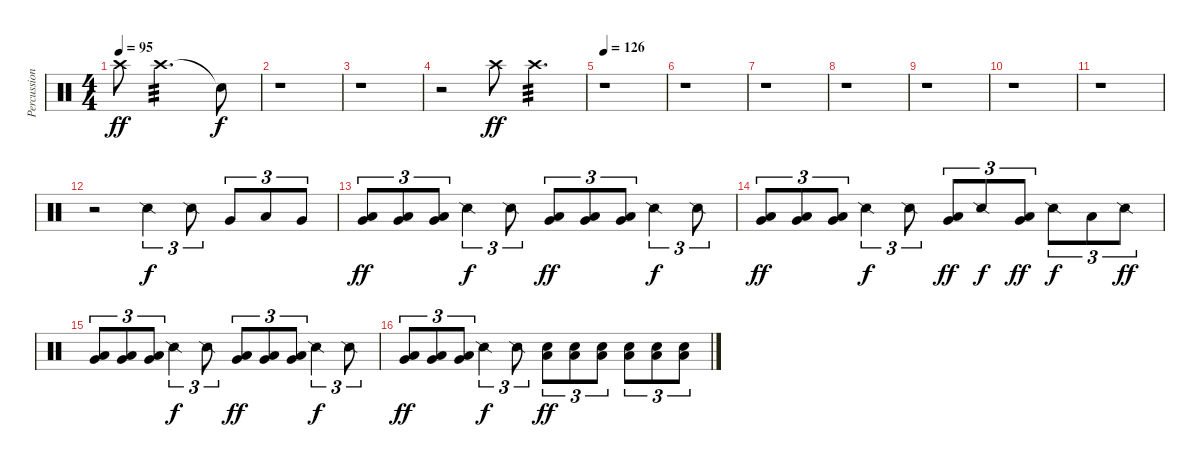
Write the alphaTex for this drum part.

\track ("Percussion" "Percussion") {instrument percussion}
\staff {score}
\articulation defaults
\ts (4 4)
\tempo 95
\clef neutral
\ks c "Crash high (hit)".8{dy ff volume 0} "Crash high (hit)".2{d tp 3 volume 13} "Snare (hit)"{t}.8{dy f}
|
r.1 |
r.1 |
r.2 "Crash high (hit)".8{dy ff volume 0} "Crash high (hit)".4{d tp 3 volume 13} |
\tempo 126
r.1 |
r.1 |
r.1 |
r.1 |
r.1 |
r.1 |
r.1 |
r.2 "Snare (side stick) 2".4{tu (3 2) dy f} "Snare (side stick) 2".8{tu (3 2)} "Very Low Tom (hit)".8{tu (3 2)} "Low Floor Tom (hit)".8{tu (3 2)} "Very Low Tom (hit)".8{tu (3 2)} |
("Very Low Tom (hit)" "Low Floor Tom (hit)").8{tu (3 2) dy ff} ("Very Low Tom (hit)" "Low Floor Tom (hit)").8{tu (3 2)} ("Very Low Tom (hit)" "Low Floor Tom (hit)").8{tu (3 2)} "Snare (side stick) 2".4{tu (3 2) dy f} "Snare (side stick) 2".8{tu (3 2)} ("Very Low Tom (hit)" "Low Floor Tom (hit)").8{tu (3 2) dy ff} ("Very Low Tom (hit)" "Low Floor Tom (hit)").8{tu (3 2)} ("Very Low Tom (hit)" "Low Floor Tom (hit)").8{tu (3 2)} "Snare (side stick) 2".4{tu (3 2) dy f} "Snare (side stick) 2".8{tu (3 2)} |
("Very Low Tom (hit)" "Low Floor Tom (hit)").8{tu (3 2) dy ff} ("Very Low Tom (hit)" "Low Floor Tom (hit)").8{tu (3 2)} ("Very Low Tom (hit)" "Low Floor Tom (hit)").8{tu (3 2)} "Snare (side stick) 2".4{tu (3 2) dy f} "Snare (side stick) 2".8{tu (3 2)} ("Very Low Tom (hit)" "Low Floor Tom (hit)").8{tu (3 2) dy ff} "Snare (side stick) 2".8{tu (3 2) dy f} ("Very Low Tom (hit)" "Low Floor Tom (hit)").8{tu (3 2) dy ff} "Snare (side stick) 2".8{tu (3 2) dy f} "Low Floor Tom (hit)".8{tu (3 2)} "Snare (side stick) 2".8{tu (3 2) dy ff} |
("Very Low Tom (hit)" "Low Floor Tom (hit)").8{tu (3 2)} ("Very Low Tom (hit)" "Low Floor Tom (hit)").8{tu (3 2)} ("Very Low Tom (hit)" "Low Floor Tom (hit)").8{tu (3 2)} "Snare (side stick) 2".4{tu (3 2) dy f} "Snare (side stick) 2".8{tu (3 2)} ("Very Low Tom (hit)" "Low Floor Tom (hit)").8{tu (3 2) dy ff} ("Very Low Tom (hit)" "Low Floor Tom (hit)").8{tu (3 2)} ("Very Low Tom (hit)" "Low Floor Tom (hit)").8{tu (3 2)} "Snare (side stick) 2".4{tu (3 2) dy f} "Snare (side stick) 2".8{tu (3 2)} |
("Very Low Tom (hit)" "Low Floor Tom (hit)").8{tu (3 2) dy ff} ("Very Low Tom (hit)" "Low Floor Tom (hit)").8{tu (3 2)} ("Very Low Tom (hit)" "Low Floor Tom (hit)").8{tu (3 2)} "Snare (side stick) 2".4{tu (3 2) dy f} "Snare (side stick) 2".8{tu (3 2)} ("Electric Snare (hit)" "Low Floor Tom (hit)").8{tu (3 2) dy ff} ("Electric Snare (hit)" "Low Floor Tom (hit)").8{tu (3 2)} ("Electric Snare (hit)" "Low Floor Tom (hit)").8{tu (3 2)} ("Electric Snare (hit)" "Low Floor Tom (hit)").8{tu (3 2)} ("Electric Snare (hit)" "Low Floor Tom (hit)").8{tu (3 2)} ("Electric Snare (hit)" "Low Floor Tom (hit)").8{tu (3 2)}
